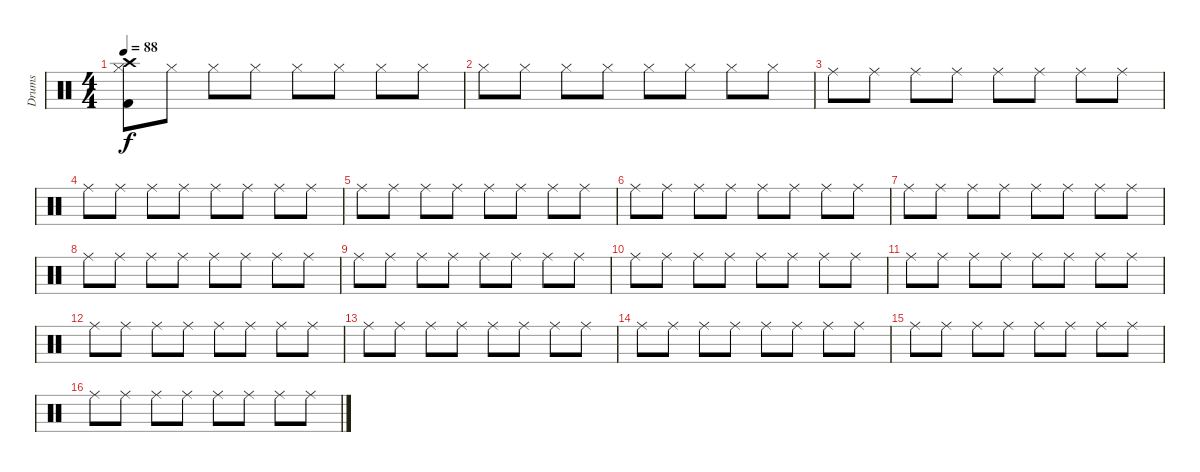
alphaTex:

\track ("Drums" "Drums") {instrument percussion}
\staff {score}
\articulation defaults
\ts (4 4)
\tempo 88
\clef neutral
\ks c
("Crash high (hit)" "Hi-Hat (closed)" "Kick (hit) 2").8{dy f} "Hi-Hat (closed)".8 "Hi-Hat (closed)".8{volume 4} "Hi-Hat (closed)".8 "Hi-Hat (closed)".8 "Hi-Hat (closed)".8 "Hi-Hat (closed)".8 "Hi-Hat (closed)".8 |
"Hi-Hat (closed)".8 "Hi-Hat (closed)".8 "Hi-Hat (closed)".8 "Hi-Hat (closed)".8 "Hi-Hat (closed)".8 "Hi-Hat (closed)".8 "Hi-Hat (closed)".8 "Hi-Hat (closed)".8 |
"Ride (middle)".8{volume 12} "Ride (middle)".8 "Ride (middle)".8{volume 8} "Ride (middle)".8 "Ride (middle)".8{volume 12} "Ride (middle)".8 "Ride (middle)".8{volume 8} "Ride (middle)".8 |
"Ride (middle)".8{volume 12} "Ride (middle)".8 "Ride (middle)".8{volume 8} "Ride (middle)".8 "Ride (middle)".8{volume 12} "Ride (middle)".8 "Ride (middle)".8{volume 8} "Ride (middle)".8 |
"Ride (middle)".8{volume 12} "Ride (middle)".8 "Ride (middle)".8{volume 8} "Ride (middle)".8 "Ride (middle)".8{volume 12} "Ride (middle)".8 "Ride (middle)".8{volume 8} "Ride (middle)".8 |
"Ride (middle)".8{volume 12} "Ride (middle)".8 "Ride (middle)".8{volume 8} "Ride (middle)".8 "Ride (middle)".8{volume 12} "Ride (middle)".8 "Ride (middle)".8{volume 8} "Ride (middle)".8 |
"Ride (middle)".8{volume 12} "Ride (middle)".8 "Ride (middle)".8{volume 8} "Ride (middle)".8 "Ride (middle)".8{volume 12} "Ride (middle)".8 "Ride (middle)".8{volume 8} "Ride (middle)".8 |
"Ride (middle)".8{volume 12} "Ride (middle)".8 "Ride (middle)".8{volume 8} "Ride (middle)".8 "Ride (middle)".8{volume 12} "Ride (middle)".8 "Ride (middle)".8{volume 8} "Ride (middle)".8 |
"Ride (middle)".8{volume 12} "Ride (middle)".8 "Ride (middle)".8{volume 8} "Ride (middle)".8 "Ride (middle)".8{volume 12} "Ride (middle)".8 "Ride (middle)".8{volume 8} "Ride (middle)".8 |
"Ride (middle)".8{volume 12} "Ride (middle)".8 "Ride (middle)".8{volume 8} "Ride (middle)".8 "Ride (middle)".8{volume 12} "Ride (middle)".8 "Ride (middle)".8{volume 8} "Ride (middle)".8 |
"Ride (middle)".8{volume 12} "Ride (middle)".8 "Ride (middle)".8{volume 8} "Ride (middle)".8 "Ride (middle)".8{volume 12} "Ride (middle)".8 "Ride (middle)".8{volume 8} "Ride (middle)".8 |
"Ride (middle)".8{volume 12} "Ride (middle)".8 "Ride (middle)".8{volume 8} "Ride (middle)".8 "Ride (middle)".8{volume 12} "Ride (middle)".8 "Ride (middle)".8{volume 8} "Ride (middle)".8 |
"Ride (middle)".8{volume 12} "Ride (middle)".8 "Ride (middle)".8{volume 8} "Ride (middle)".8 "Ride (middle)".8{volume 12} "Ride (middle)".8 "Ride (middle)".8{volume 8} "Ride (middle)".8 |
"Ride (middle)".8{volume 12} "Ride (middle)".8 "Ride (middle)".8{volume 8} "Ride (middle)".8 "Ride (middle)".8{volume 12} "Ride (middle)".8 "Ride (middle)".8{volume 8} "Ride (middle)".8 |
"Ride (middle)".8{volume 12} "Ride (middle)".8 "Ride (middle)".8{volume 8} "Ride (middle)".8 "Ride (middle)".8{volume 12} "Ride (middle)".8 "Ride (middle)".8{volume 8} "Ride (middle)".8 |
"Ride (middle)".8{volume 12} "Ride (middle)".8 "Ride (middle)".8{volume 8} "Ride (middle)".8 "Ride (middle)".8{volume 12} "Ride (middle)".8 "Ride (middle)".8{volume 8} "Ride (middle)".8
